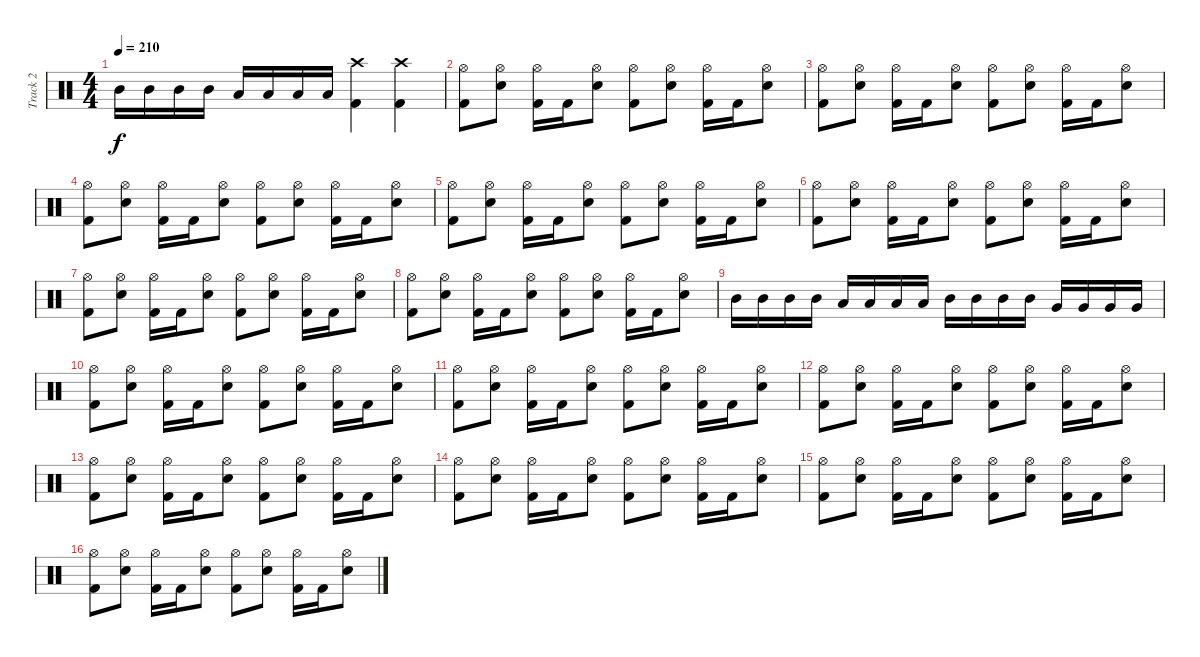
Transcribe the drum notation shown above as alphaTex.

\track ("Track 2" "Track 2") {instrument percussion}
\staff {score}
\articulation defaults
\ts (4 4)
\tempo 210
\clef neutral
\ks c "Mid Tom (hit)".16{dy f} "Mid Tom (hit)".16 "Mid Tom (hit)".16 "Mid Tom (hit)".16 "Low Tom (hit)".16 "Low Tom (hit)".16 "Low Tom (hit)".16 "Low Tom (hit)".16
("Crash high (hit)" "Kick (hit) 2").4 ("Crash high (hit)" "Kick (hit) 2").4 |
("Hi-Hat (open)" "Kick (hit) 2").8 ("Hi-Hat (open)" "Snare (hit) 2").8 ("Hi-Hat (open)" "Kick (hit) 2").16 "Kick (hit) 2".16 ("Hi-Hat (open)" "Snare (hit) 2").8 ("Hi-Hat (open)" "Kick (hit) 2").8 ("Hi-Hat (open)" "Snare (hit) 2").8 ("Hi-Hat (open)" "Kick (hit) 2").16 "Kick (hit) 2".16 ("Hi-Hat (open)" "Snare (hit) 2").8 |
("Hi-Hat (open)" "Kick (hit) 2").8 ("Hi-Hat (open)" "Snare (hit) 2").8 ("Hi-Hat (open)" "Kick (hit) 2").16 "Kick (hit) 2".16 ("Hi-Hat (open)" "Snare (hit) 2").8 ("Hi-Hat (open)" "Kick (hit) 2").8 ("Hi-Hat (open)" "Snare (hit) 2").8 ("Hi-Hat (open)" "Kick (hit) 2").16 "Kick (hit) 2".16 ("Hi-Hat (open)" "Snare (hit) 2").8 |
("Hi-Hat (open)" "Kick (hit) 2").8 ("Hi-Hat (open)" "Snare (hit) 2").8 ("Hi-Hat (open)" "Kick (hit) 2").16 "Kick (hit) 2".16 ("Hi-Hat (open)" "Snare (hit) 2").8 ("Hi-Hat (open)" "Kick (hit) 2").8 ("Hi-Hat (open)" "Snare (hit) 2").8 ("Hi-Hat (open)" "Kick (hit) 2").16 "Kick (hit) 2".16 ("Hi-Hat (open)" "Snare (hit) 2").8 |
("Hi-Hat (open)" "Kick (hit) 2").8 ("Hi-Hat (open)" "Snare (hit) 2").8 ("Hi-Hat (open)" "Kick (hit) 2").16 "Kick (hit) 2".16 ("Hi-Hat (open)" "Snare (hit) 2").8 ("Hi-Hat (open)" "Kick (hit) 2").8 ("Hi-Hat (open)" "Snare (hit) 2").8 ("Hi-Hat (open)" "Kick (hit) 2").16 "Kick (hit) 2".16 ("Hi-Hat (open)" "Snare (hit) 2").8 |
("Hi-Hat (open)" "Kick (hit) 2").8 ("Hi-Hat (open)" "Snare (hit) 2").8 ("Hi-Hat (open)" "Kick (hit) 2").16 "Kick (hit) 2".16 ("Hi-Hat (open)" "Snare (hit) 2").8 ("Hi-Hat (open)" "Kick (hit) 2").8 ("Hi-Hat (open)" "Snare (hit) 2").8 ("Hi-Hat (open)" "Kick (hit) 2").16 "Kick (hit) 2".16 ("Hi-Hat (open)" "Snare (hit) 2").8 |
("Hi-Hat (open)" "Kick (hit) 2").8 ("Hi-Hat (open)" "Snare (hit) 2").8 ("Hi-Hat (open)" "Kick (hit) 2").16 "Kick (hit) 2".16 ("Hi-Hat (open)" "Snare (hit) 2").8 ("Hi-Hat (open)" "Kick (hit) 2").8 ("Hi-Hat (open)" "Snare (hit) 2").8 ("Hi-Hat (open)" "Kick (hit) 2").16 "Kick (hit) 2".16 ("Hi-Hat (open)" "Snare (hit) 2").8 |
("Hi-Hat (open)" "Kick (hit) 2").8 ("Hi-Hat (open)" "Snare (hit) 2").8 ("Hi-Hat (open)" "Kick (hit) 2").16 "Kick (hit) 2".16 ("Hi-Hat (open)" "Snare (hit) 2").8 ("Hi-Hat (open)" "Kick (hit) 2").8 ("Hi-Hat (open)" "Snare (hit) 2").8 ("Hi-Hat (open)" "Kick (hit) 2").16 "Kick (hit) 2".16 ("Hi-Hat (open)" "Snare (hit) 2").8 |
"Mid Tom (hit)".16 "Mid Tom (hit)".16 "Mid Tom (hit)".16 "Mid Tom (hit)".16 "Low Tom (hit)".16 "Low Tom (hit)".16 "Low Tom (hit)".16 "Low Tom (hit)".16 "Mid Tom (hit)".16 "Mid Tom (hit)".16 "Mid Tom (hit)".16 "Mid Tom (hit)".16 "Very Low Tom (hit)".16 "Very Low Tom (hit)".16 "Very Low Tom (hit)".16 "Very Low Tom (hit)".16 |
("Hi-Hat (open)" "Kick (hit) 2").8 ("Hi-Hat (open)" "Snare (hit) 2").8 ("Hi-Hat (open)" "Kick (hit) 2").16 "Kick (hit) 2".16 ("Hi-Hat (open)" "Snare (hit) 2").8 ("Hi-Hat (open)" "Kick (hit) 2").8 ("Hi-Hat (open)" "Snare (hit) 2").8 ("Hi-Hat (open)" "Kick (hit) 2").16 "Kick (hit) 2".16 ("Hi-Hat (open)" "Snare (hit) 2").8 |
("Hi-Hat (open)" "Kick (hit) 2").8 ("Hi-Hat (open)" "Snare (hit) 2").8 ("Hi-Hat (open)" "Kick (hit) 2").16 "Kick (hit) 2".16 ("Hi-Hat (open)" "Snare (hit) 2").8 ("Hi-Hat (open)" "Kick (hit) 2").8 ("Hi-Hat (open)" "Snare (hit) 2").8 ("Hi-Hat (open)" "Kick (hit) 2").16 "Kick (hit) 2".16 ("Hi-Hat (open)" "Snare (hit) 2").8 |
("Hi-Hat (open)" "Kick (hit) 2").8 ("Hi-Hat (open)" "Snare (hit) 2").8 ("Hi-Hat (open)" "Kick (hit) 2").16 "Kick (hit) 2".16 ("Hi-Hat (open)" "Snare (hit) 2").8 ("Hi-Hat (open)" "Kick (hit) 2").8 ("Hi-Hat (open)" "Snare (hit) 2").8 ("Hi-Hat (open)" "Kick (hit) 2").16 "Kick (hit) 2".16 ("Hi-Hat (open)" "Snare (hit) 2").8 |
("Hi-Hat (open)" "Kick (hit) 2").8 ("Hi-Hat (open)" "Snare (hit) 2").8 ("Hi-Hat (open)" "Kick (hit) 2").16 "Kick (hit) 2".16 ("Hi-Hat (open)" "Snare (hit) 2").8 ("Hi-Hat (open)" "Kick (hit) 2").8 ("Hi-Hat (open)" "Snare (hit) 2").8 ("Hi-Hat (open)" "Kick (hit) 2").16 "Kick (hit) 2".16 ("Hi-Hat (open)" "Snare (hit) 2").8 |
("Hi-Hat (open)" "Kick (hit) 2").8 ("Hi-Hat (open)" "Snare (hit) 2").8 ("Hi-Hat (open)" "Kick (hit) 2").16 "Kick (hit) 2".16 ("Hi-Hat (open)" "Snare (hit) 2").8 ("Hi-Hat (open)" "Kick (hit) 2").8 ("Hi-Hat (open)" "Snare (hit) 2").8 ("Hi-Hat (open)" "Kick (hit) 2").16 "Kick (hit) 2".16 ("Hi-Hat (open)" "Snare (hit) 2").8 |
("Hi-Hat (open)" "Kick (hit) 2").8 ("Hi-Hat (open)" "Snare (hit) 2").8 ("Hi-Hat (open)" "Kick (hit) 2").16 "Kick (hit) 2".16 ("Hi-Hat (open)" "Snare (hit) 2").8 ("Hi-Hat (open)" "Kick (hit) 2").8 ("Hi-Hat (open)" "Snare (hit) 2").8 ("Hi-Hat (open)" "Kick (hit) 2").16 "Kick (hit) 2".16 ("Hi-Hat (open)" "Snare (hit) 2").8 |
("Hi-Hat (open)" "Kick (hit) 2").8 ("Hi-Hat (open)" "Snare (hit) 2").8 ("Hi-Hat (open)" "Kick (hit) 2").16 "Kick (hit) 2".16 ("Hi-Hat (open)" "Snare (hit) 2").8 ("Hi-Hat (open)" "Kick (hit) 2").8 ("Hi-Hat (open)" "Snare (hit) 2").8 ("Hi-Hat (open)" "Kick (hit) 2").16 "Kick (hit) 2".16 ("Hi-Hat (open)" "Snare (hit) 2").8
